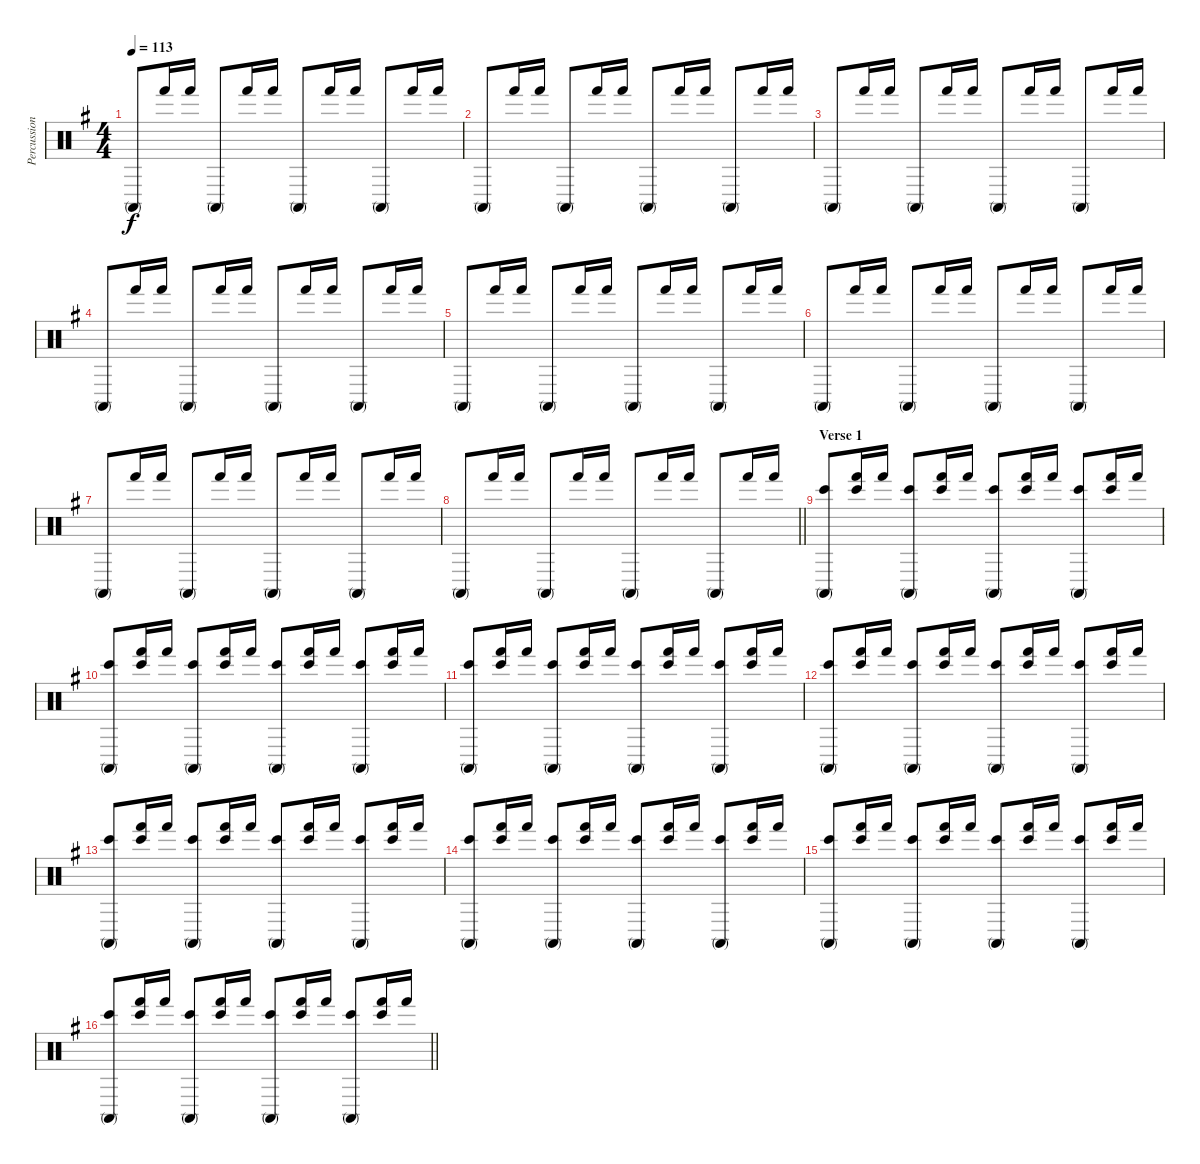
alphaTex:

\track ("Percussion" "Percussion") {instrument percussion}
\staff {score}
\articulation defaults
\ts (4 4)
\tempo 113
\clef neutral
\ks g "Conga high (mute)".8{dy f} "Hand (hit)".16 "Hand (hit)".16 "Conga high (mute)".8 "Hand (hit)".16 "Hand (hit)".16 "Conga high (mute)".8 "Hand (hit)".16 "Hand (hit)".16 "Conga high (mute)".8 "Hand (hit)".16 "Hand (hit)".16
|
"Conga high (mute)".8 "Hand (hit)".16 "Hand (hit)".16 "Conga high (mute)".8 "Hand (hit)".16 "Hand (hit)".16 "Conga high (mute)".8 "Hand (hit)".16 "Hand (hit)".16 "Conga high (mute)".8 "Hand (hit)".16 "Hand (hit)".16 |
"Conga high (mute)".8 "Hand (hit)".16 "Hand (hit)".16 "Conga high (mute)".8 "Hand (hit)".16 "Hand (hit)".16 "Conga high (mute)".8 "Hand (hit)".16 "Hand (hit)".16 "Conga high (mute)".8 "Hand (hit)".16 "Hand (hit)".16 |
"Conga high (mute)".8 "Hand (hit)".16 "Hand (hit)".16 "Conga high (mute)".8 "Hand (hit)".16 "Hand (hit)".16 "Conga high (mute)".8 "Hand (hit)".16 "Hand (hit)".16 "Conga high (mute)".8 "Hand (hit)".16 "Hand (hit)".16 |
"Conga high (mute)".8 "Hand (hit)".16 "Hand (hit)".16 "Conga high (mute)".8 "Hand (hit)".16 "Hand (hit)".16 "Conga high (mute)".8 "Hand (hit)".16 "Hand (hit)".16 "Conga high (mute)".8 "Hand (hit)".16 "Hand (hit)".16 |
"Conga high (mute)".8 "Hand (hit)".16 "Hand (hit)".16 "Conga high (mute)".8 "Hand (hit)".16 "Hand (hit)".16 "Conga high (mute)".8 "Hand (hit)".16 "Hand (hit)".16 "Conga high (mute)".8 "Hand (hit)".16 "Hand (hit)".16 |
"Conga high (mute)".8 "Hand (hit)".16 "Hand (hit)".16 "Conga high (mute)".8 "Hand (hit)".16 "Hand (hit)".16 "Conga high (mute)".8 "Hand (hit)".16 "Hand (hit)".16 "Conga high (mute)".8 "Hand (hit)".16 "Hand (hit)".16 |
\barLineRight lightlight "Conga high (mute)".8 "Hand (hit)".16 "Hand (hit)".16 "Conga high (mute)".8 "Hand (hit)".16 "Hand (hit)".16 "Conga high (mute)".8 "Hand (hit)".16 "Hand (hit)".16 "Conga high (mute)".8 "Hand (hit)".16 "Hand (hit)".16
|
\section ("" "Verse 1")
("Bongo High (hit)" "Conga high (mute)").8 ("Bongo High (hit)" "Hand (hit)").16 "Hand (hit)".16 ("Bongo High (hit)" "Conga high (mute)").8 ("Bongo High (hit)" "Hand (hit)").16 "Hand (hit)".16 ("Bongo High (hit)" "Conga high (mute)").8 ("Bongo High (hit)" "Hand (hit)").16 "Hand (hit)".16 ("Bongo High (hit)" "Conga high (mute)").8 ("Bongo High (hit)" "Hand (hit)").16 "Hand (hit)".16 |
("Bongo High (hit)" "Conga high (mute)").8 ("Bongo High (hit)" "Hand (hit)").16 "Hand (hit)".16 ("Bongo High (hit)" "Conga high (mute)").8 ("Bongo High (hit)" "Hand (hit)").16 "Hand (hit)".16 ("Bongo High (hit)" "Conga high (mute)").8 ("Bongo High (hit)" "Hand (hit)").16 "Hand (hit)".16 ("Bongo High (hit)" "Conga high (mute)").8 ("Bongo High (hit)" "Hand (hit)").16 "Hand (hit)".16 |
("Bongo High (hit)" "Conga high (mute)").8 ("Bongo High (hit)" "Hand (hit)").16 "Hand (hit)".16 ("Bongo High (hit)" "Conga high (mute)").8 ("Bongo High (hit)" "Hand (hit)").16 "Hand (hit)".16 ("Bongo High (hit)" "Conga high (mute)").8 ("Bongo High (hit)" "Hand (hit)").16 "Hand (hit)".16 ("Bongo High (hit)" "Conga high (mute)").8 ("Bongo High (hit)" "Hand (hit)").16 "Hand (hit)".16 |
("Bongo High (hit)" "Conga high (mute)").8 ("Bongo High (hit)" "Hand (hit)").16 "Hand (hit)".16 ("Bongo High (hit)" "Conga high (mute)").8 ("Bongo High (hit)" "Hand (hit)").16 "Hand (hit)".16 ("Bongo High (hit)" "Conga high (mute)").8 ("Bongo High (hit)" "Hand (hit)").16 "Hand (hit)".16 ("Bongo High (hit)" "Conga high (mute)").8 ("Bongo High (hit)" "Hand (hit)").16 "Hand (hit)".16 |
("Bongo High (hit)" "Conga high (mute)").8 ("Bongo High (hit)" "Hand (hit)").16 "Hand (hit)".16 ("Bongo High (hit)" "Conga high (mute)").8 ("Bongo High (hit)" "Hand (hit)").16 "Hand (hit)".16 ("Bongo High (hit)" "Conga high (mute)").8 ("Bongo High (hit)" "Hand (hit)").16 "Hand (hit)".16 ("Bongo High (hit)" "Conga high (mute)").8 ("Bongo High (hit)" "Hand (hit)").16 "Hand (hit)".16 |
("Bongo High (hit)" "Conga high (mute)").8 ("Bongo High (hit)" "Hand (hit)").16 "Hand (hit)".16 ("Bongo High (hit)" "Conga high (mute)").8 ("Bongo High (hit)" "Hand (hit)").16 "Hand (hit)".16 ("Bongo High (hit)" "Conga high (mute)").8 ("Bongo High (hit)" "Hand (hit)").16 "Hand (hit)".16 ("Bongo High (hit)" "Conga high (mute)").8 ("Bongo High (hit)" "Hand (hit)").16 "Hand (hit)".16 |
("Bongo High (hit)" "Conga high (mute)").8 ("Bongo High (hit)" "Hand (hit)").16 "Hand (hit)".16 ("Bongo High (hit)" "Conga high (mute)").8 ("Bongo High (hit)" "Hand (hit)").16 "Hand (hit)".16 ("Bongo High (hit)" "Conga high (mute)").8 ("Bongo High (hit)" "Hand (hit)").16 "Hand (hit)".16 ("Bongo High (hit)" "Conga high (mute)").8 ("Bongo High (hit)" "Hand (hit)").16 "Hand (hit)".16 |
\barLineRight lightlight
("Bongo High (hit)" "Conga high (mute)").8 ("Bongo High (hit)" "Hand (hit)").16 "Hand (hit)".16 ("Bongo High (hit)" "Conga high (mute)").8 ("Bongo High (hit)" "Hand (hit)").16 "Hand (hit)".16 ("Bongo High (hit)" "Conga high (mute)").8 ("Bongo High (hit)" "Hand (hit)").16 "Hand (hit)".16 ("Bongo High (hit)" "Conga high (mute)").8 ("Bongo High (hit)" "Hand (hit)").16 "Hand (hit)".16
